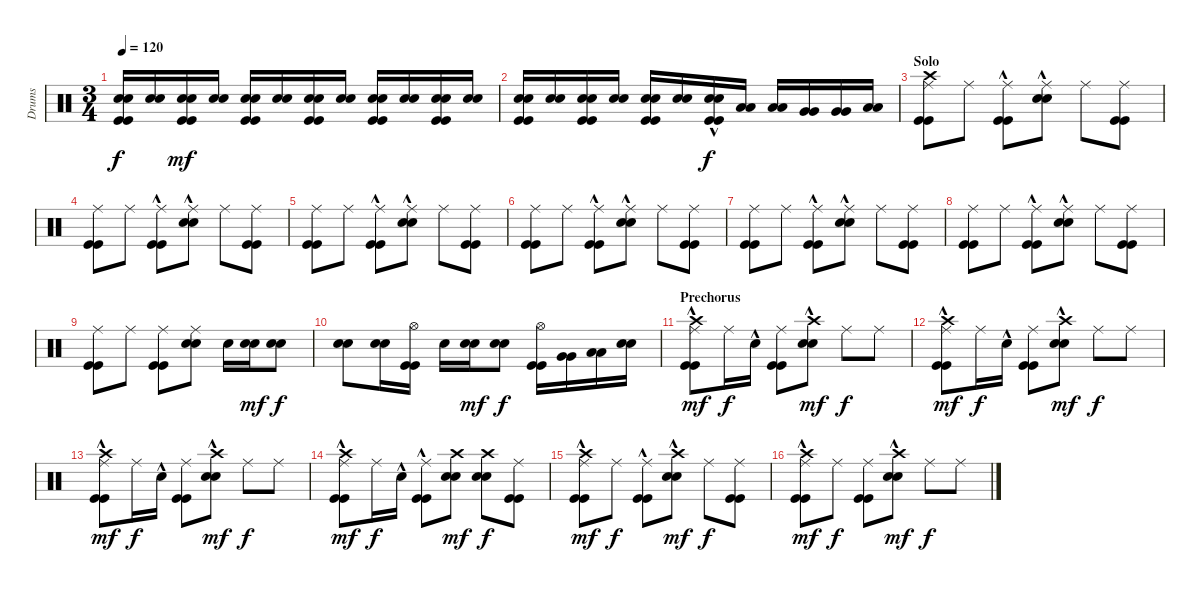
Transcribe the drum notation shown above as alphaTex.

\track ("Drums" "Drums") {instrument percussion}
\staff {score}
\articulation defaults
\ts (3 4)
\tempo 120
\clef neutral
\ks c
("Kick (hit)" "Kick (hit)" "Snare (hit) 2" "Snare (hit) 2").16{dy f} ("Snare (hit) 2" "Snare (hit) 2").16 ("Kick (hit)" "Kick (hit)" "Snare (hit) 2" "Snare (hit) 2").16{dy mf} ("Snare (hit) 2" "Snare (hit) 2").16 ("Kick (hit)" "Kick (hit)" "Snare (hit) 2" "Snare (hit) 2").16 ("Snare (hit) 2" "Snare (hit) 2").16 ("Kick (hit)" "Kick (hit)" "Snare (hit) 2" "Snare (hit) 2").16 ("Snare (hit) 2" "Snare (hit) 2").16 ("Kick (hit)" "Kick (hit)" "Snare (hit) 2" "Snare (hit) 2").16 ("Snare (hit) 2" "Snare (hit) 2").16 ("Kick (hit)" "Kick (hit)" "Snare (hit) 2" "Snare (hit) 2").16 ("Snare (hit) 2" "Snare (hit) 2").16 |
("Kick (hit)" "Kick (hit)" "Snare (hit) 2" "Snare (hit) 2").16 ("Snare (hit) 2" "Snare (hit) 2").16 ("Kick (hit)" "Kick (hit)" "Snare (hit) 2" "Snare (hit) 2").16 ("Snare (hit) 2" "Snare (hit) 2").16 ("Kick (hit)" "Kick (hit)" "Snare (hit) 2" "Snare (hit) 2").16 ("Snare (hit) 2" "Snare (hit) 2").16 ("Kick (hit)"{hac} "Kick (hit)"{hac} "Snare (hit) 2"{hac} "Snare (hit) 2"{hac}).16{dy f} ("Low Tom (hit)" "Low Tom (hit)").16 ("Low Tom (hit)" "Low Tom (hit)").16 ("Very Low Tom (hit)" "Very Low Tom (hit)").16 ("Very Low Tom (hit)" "Very Low Tom (hit)").16 ("Low Floor Tom (hit)" "Low Floor Tom (hit)").16 |
\section ("" "Solo")
("Kick (hit)" "Kick (hit)" "Ride (middle)" "Crash high (hit)").8 "Ride (middle)".8 ("Kick (hit)"{hac} "Kick (hit)"{hac} "Ride (middle)").8 ("Snare (hit) 2"{hac} "Snare (hit) 2"{hac} "Ride (middle)").8 "Ride (middle)".8 ("Kick (hit)" "Kick (hit)" "Ride (middle)").8 |
("Kick (hit)" "Kick (hit)" "Ride (middle)").8 "Ride (middle)".8 ("Kick (hit)"{hac} "Kick (hit)"{hac} "Ride (middle)").8 ("Snare (hit) 2"{hac} "Snare (hit) 2"{hac} "Ride (middle)").8 "Ride (middle)".8 ("Kick (hit)" "Kick (hit)" "Ride (middle)").8 |
("Kick (hit)" "Kick (hit)" "Ride (middle)").8 "Ride (middle)".8 ("Kick (hit)"{hac} "Kick (hit)"{hac} "Ride (middle)").8 ("Snare (hit) 2"{hac} "Snare (hit) 2"{hac} "Ride (middle)").8 "Ride (middle)".8 ("Kick (hit)" "Kick (hit)" "Ride (middle)").8 |
("Kick (hit)" "Kick (hit)" "Ride (middle)").8 "Ride (middle)".8 ("Kick (hit)"{hac} "Kick (hit)"{hac} "Ride (middle)").8 ("Snare (hit) 2"{hac} "Snare (hit) 2"{hac} "Ride (middle)").8 "Ride (middle)".8 ("Kick (hit)" "Kick (hit)" "Ride (middle)").8 |
("Kick (hit)" "Kick (hit)" "Ride (middle)").8 "Ride (middle)".8 ("Kick (hit)"{hac} "Kick (hit)"{hac} "Ride (middle)").8 ("Snare (hit) 2"{hac} "Snare (hit) 2"{hac} "Ride (middle)").8 "Ride (middle)".8 ("Kick (hit)" "Kick (hit)" "Ride (middle)").8 |
("Kick (hit)" "Kick (hit)" "Ride (middle)").8 "Ride (middle)".8 ("Kick (hit)"{hac} "Kick (hit)"{hac} "Ride (middle)").8 ("Snare (hit) 2"{hac} "Snare (hit) 2"{hac} "Ride (middle)").8 "Ride (middle)".8 ("Kick (hit)" "Kick (hit)" "Ride (middle)").8 |
("Kick (hit)" "Kick (hit)" "Ride (middle)").8 "Ride (middle)".8 ("Kick (hit)" "Kick (hit)" "Ride (middle)").8 ("Snare (hit) 2" "Snare (hit) 2" "Ride (middle)").8 "Snare (hit) 2".16 ("Snare (hit) 2" "Snare (hit) 2").16{dy mf} ("Snare (hit) 2" "Snare (hit) 2").8{dy f} |
("Snare (hit) 2" "Snare (hit) 2").8 ("Snare (hit) 2" "Snare (hit) 2").16 ("Kick (hit)" "Kick (hit)" "Hi-Hat (open)").16 "Snare (hit) 2".16 ("Snare (hit) 2" "Snare (hit) 2").16{dy mf} ("Snare (hit) 2" "Snare (hit) 2").8{dy f} ("Kick (hit)" "Kick (hit)" "Hi-Hat (open)").16 ("Very Low Tom (hit)" "Very Low Tom (hit)").16 ("Low Floor Tom (hit)" "Low Floor Tom (hit)").16 ("Snare (hit) 2" "Snare (hit) 2").16 |
\section ("" "Prechorus")
("Kick (hit)" "Kick (hit)" "Ride (middle)" "Crash high (hit)"{hac}).8{dy mf} "Ride (middle)".16{dy f} "Snare (hit) 2"{hac}.16 ("Kick (hit)" "Kick (hit)" "Ride (middle)").8 ("Snare (hit) 2" "Snare (hit) 2" "Crash high (hit)"{hac}).8{dy mf} "Ride (middle)".8{dy f} "Ride (middle)".8 |
("Kick (hit)" "Kick (hit)" "Ride (middle)" "Crash high (hit)"{hac}).8{dy mf} "Ride (middle)".16{dy f} "Snare (hit) 2"{hac}.16 ("Kick (hit)" "Kick (hit)" "Ride (middle)").8 ("Snare (hit) 2" "Snare (hit) 2" "Crash high (hit)"{hac}).8{dy mf} "Ride (middle)".8{dy f} "Ride (middle)".8 |
("Kick (hit)" "Kick (hit)" "Ride (middle)" "Crash high (hit)"{hac}).8{dy mf} "Ride (middle)".16{dy f} "Snare (hit) 2"{hac}.16 ("Kick (hit)" "Kick (hit)" "Ride (middle)").8 ("Snare (hit) 2" "Snare (hit) 2" "Crash high (hit)"{hac}).8{dy mf} "Ride (middle)".8{dy f} "Ride (middle)".8 |
("Kick (hit)" "Kick (hit)" "Ride (middle)" "Crash high (hit)"{hac}).8{dy mf} "Ride (middle)".16{dy f} "Snare (hit) 2"{hac}.16 ("Kick (hit)"{hac} "Kick (hit)"{hac} "Ride (middle)"{hac}).8 ("Snare (hit) 2" "Snare (hit) 2" "Crash high (hit)").8{dy mf} ("Snare (hit) 2" "Snare (hit) 2" "Crash high (hit)").8{dy f} ("Kick (hit)" "Kick (hit)" "Ride (middle)").8 |
("Kick (hit)" "Kick (hit)" "Ride (middle)" "Crash high (hit)"{hac}).8{dy mf} "Ride (middle)".8{dy f} ("Kick (hit)"{hac} "Kick (hit)"{hac} "Ride (middle)").8 ("Snare (hit) 2"{hac} "Snare (hit) 2"{hac} "Crash high (hit)"{hac}).8{dy mf} "Ride (middle)".8{dy f} ("Kick (hit)" "Kick (hit)" "Ride (middle)").8 |
("Kick (hit)" "Kick (hit)" "Ride (middle)" "Crash high (hit)"{hac}).8{dy mf} "Ride (middle)".8{dy f} ("Kick (hit)" "Kick (hit)" "Ride (middle)").8 ("Snare (hit) 2"{hac} "Snare (hit) 2"{hac} "Crash high (hit)").8{dy mf} "Ride (middle)".8{dy f} "Ride (middle)".8
